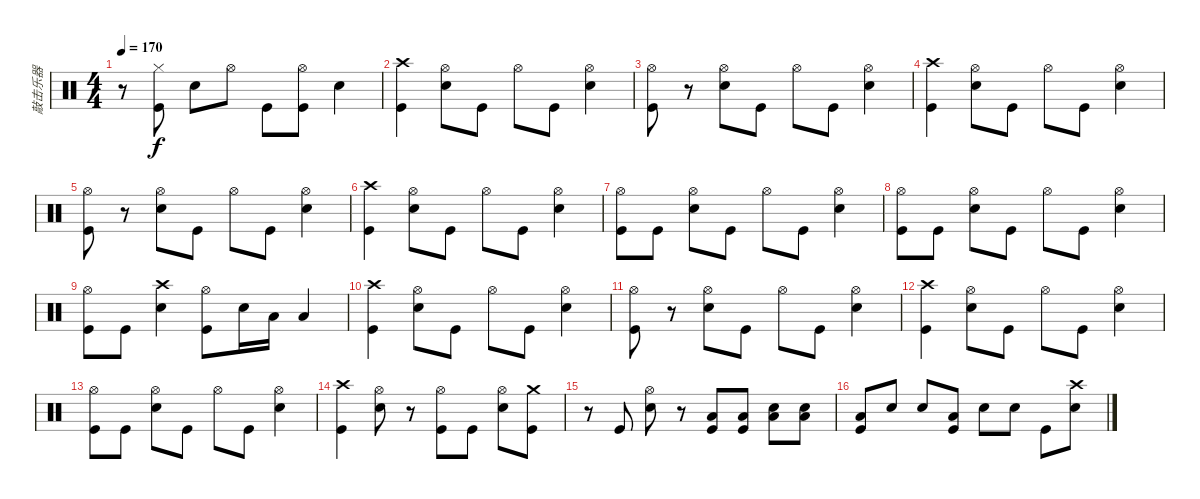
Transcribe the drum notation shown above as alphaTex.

\track ("敲击乐器" "敲击乐器") {instrument percussion}
\staff {score}
\articulation defaults
\ts (4 4)
\tempo 170
\clef neutral
\ks c
r.8{dy f} ("Hi-Hat (closed)" "Kick (hit)").8 "Snare (hit) 2".8 "Hi-Hat (open)".8 "Kick (hit)".8 ("Hi-Hat (open)" "Kick (hit)").8 "Snare (hit) 2".4 |
("Crash high (hit)" "Kick (hit)").4 ("Hi-Hat (open)" "Snare (hit) 2").8 "Kick (hit)".8 "Hi-Hat (open)".8 "Kick (hit)".8 ("Hi-Hat (open)" "Snare (hit) 2").4 |
("Hi-Hat (open)" "Kick (hit)").8 r.8 ("Hi-Hat (open)" "Snare (hit) 2").8 "Kick (hit)".8 "Hi-Hat (open)".8 "Kick (hit)".8 ("Hi-Hat (open)" "Snare (hit) 2").4 |
("Crash high (hit)" "Kick (hit)").4 ("Hi-Hat (open)" "Snare (hit) 2").8 "Kick (hit)".8 "Hi-Hat (open)".8 "Kick (hit)".8 ("Hi-Hat (open)" "Snare (hit) 2").4 |
("Hi-Hat (open)" "Kick (hit)").8 r.8 ("Hi-Hat (open)" "Snare (hit) 2").8 "Kick (hit)".8 "Hi-Hat (open)".8 "Kick (hit)".8 ("Hi-Hat (open)" "Snare (hit) 2").4 |
("Crash high (hit)" "Kick (hit)").4 ("Hi-Hat (open)" "Snare (hit) 2").8 "Kick (hit)".8 "Hi-Hat (open)".8 "Kick (hit)".8 ("Hi-Hat (open)" "Snare (hit) 2").4 |
("Hi-Hat (open)" "Kick (hit)").8 "Kick (hit)".8 ("Hi-Hat (open)" "Snare (hit) 2").8 "Kick (hit)".8 "Hi-Hat (open)".8 "Kick (hit)".8 ("Hi-Hat (open)" "Snare (hit) 2").4 |
("Hi-Hat (open)" "Kick (hit)").8 "Kick (hit)".8 ("Hi-Hat (open)" "Snare (hit) 2").8 "Kick (hit)".8 "Hi-Hat (open)".8 "Kick (hit)".8 ("Hi-Hat (open)" "Snare (hit) 2").4 |
("Hi-Hat (open)" "Kick (hit)").8 "Kick (hit)".8 ("Crash high (hit)" "Snare (hit) 2").4 ("Hi-Hat (open)" "Kick (hit)").8 "Snare (hit) 2".16 "Low Tom (hit)".16 "Low Floor Tom (hit)".4 |
("Crash high (hit)" "Kick (hit)").4 ("Hi-Hat (open)" "Snare (hit) 2").8 "Kick (hit)".8 "Hi-Hat (open)".8 "Kick (hit)".8 ("Hi-Hat (open)" "Snare (hit) 2").4 |
("Hi-Hat (open)" "Kick (hit)").8 r.8 ("Hi-Hat (open)" "Snare (hit) 2").8 "Kick (hit)".8 "Hi-Hat (open)".8 "Kick (hit)".8 ("Hi-Hat (open)" "Snare (hit) 2").4 |
("Crash high (hit)" "Kick (hit)").4 ("Hi-Hat (open)" "Snare (hit) 2").8 "Kick (hit)".8 "Hi-Hat (open)".8 "Kick (hit)".8 ("Hi-Hat (open)" "Snare (hit) 2").4 |
("Hi-Hat (open)" "Kick (hit)").8 "Kick (hit)".8 ("Hi-Hat (open)" "Snare (hit) 2").8 "Kick (hit)".8 "Hi-Hat (open)".8 "Kick (hit)".8 ("Hi-Hat (open)" "Snare (hit) 2").4 |
("Crash high (hit)" "Kick (hit)").4 ("Hi-Hat (open)" "Snare (hit) 2").8 r.8 ("Hi-Hat (open)" "Kick (hit)").8 "Kick (hit)".8 ("Hi-Hat (open)" "Snare (hit) 2").8 ("Crash medium (hit)" "Kick (hit)").8 |
r.8 "Kick (hit)".8 ("Hi-Hat (open)" "Snare (hit) 2").8 r.8 ("Low Tom (hit)" "Kick (hit)").8 ("Low Tom (hit)" "Kick (hit)").8 ("Low Tom (hit)" "Snare (hit) 2").8 ("Low Tom (hit)" "Snare (hit) 2").8 |
("Low Floor Tom (hit)" "Kick (hit)").8 "Snare (hit) 2".8 "Snare (hit) 2".8 ("Low Floor Tom (hit)" "Kick (hit)").8 "Snare (hit) 2".8 "Snare (hit) 2".8 "Kick (hit)".8 ("Crash high (hit)" "Snare (hit) 2").8
